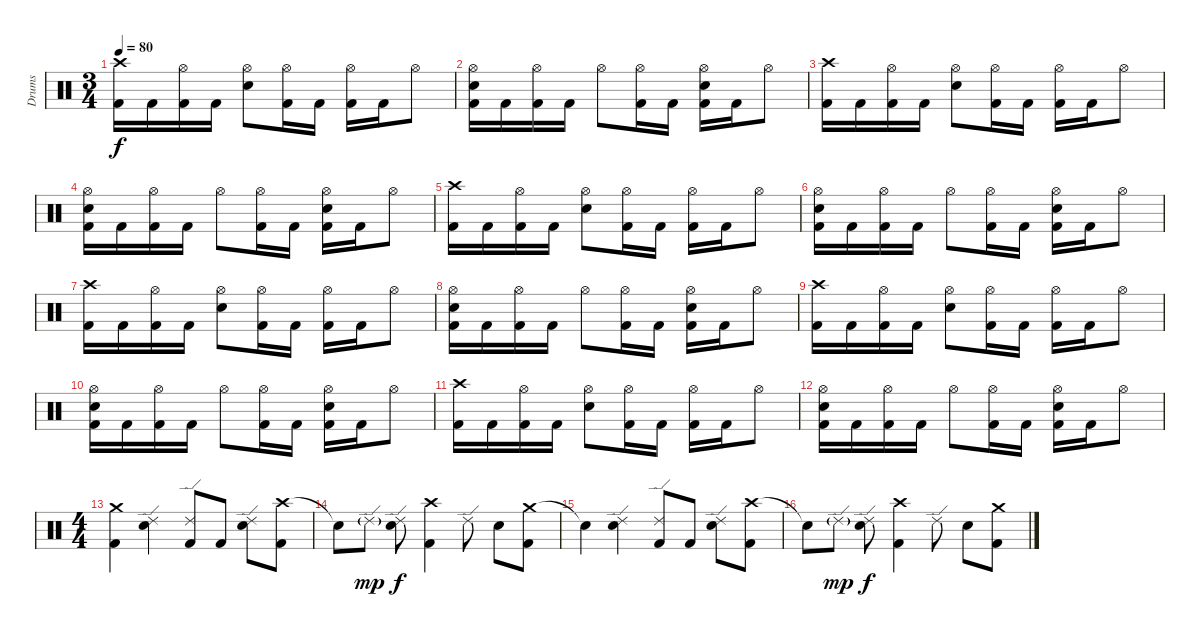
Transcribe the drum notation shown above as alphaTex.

\track ("Drums" "Drums") {instrument percussion}
\staff {score}
\articulation defaults
\ts (3 4)
\tempo 80
\clef neutral
\ks c
("Crash high (hit)" "Kick (hit) 2").16{dy f} "Kick (hit) 2".16 ("Hi-Hat (open)" "Kick (hit) 2").16 "Kick (hit) 2".16 ("Hi-Hat (open)" "Snare (hit) 2").8 ("Hi-Hat (open)" "Kick (hit) 2").16 "Kick (hit) 2".16 ("Hi-Hat (open)" "Kick (hit) 2").16 "Kick (hit) 2".16 "Hi-Hat (open)".8 |
("Hi-Hat (open)" "Snare (hit) 2" "Kick (hit) 2").16 "Kick (hit) 2".16 ("Hi-Hat (open)" "Kick (hit) 2").16 "Kick (hit) 2".16 "Hi-Hat (open)".8 ("Hi-Hat (open)" "Kick (hit) 2").16 "Kick (hit) 2".16 ("Hi-Hat (open)" "Snare (hit) 2" "Kick (hit) 2").16 "Kick (hit) 2".16 "Hi-Hat (open)".8 |
("Crash high (hit)" "Kick (hit) 2").16 "Kick (hit) 2".16 ("Hi-Hat (open)" "Kick (hit) 2").16 "Kick (hit) 2".16 ("Hi-Hat (open)" "Snare (hit) 2").8 ("Hi-Hat (open)" "Kick (hit) 2").16 "Kick (hit) 2".16 ("Hi-Hat (open)" "Kick (hit) 2").16 "Kick (hit) 2".16 "Hi-Hat (open)".8 |
("Hi-Hat (open)" "Snare (hit) 2" "Kick (hit) 2").16 "Kick (hit) 2".16 ("Hi-Hat (open)" "Kick (hit) 2").16 "Kick (hit) 2".16 "Hi-Hat (open)".8 ("Hi-Hat (open)" "Kick (hit) 2").16 "Kick (hit) 2".16 ("Hi-Hat (open)" "Snare (hit) 2" "Kick (hit) 2").16 "Kick (hit) 2".16 "Hi-Hat (open)".8 |
("Crash high (hit)" "Kick (hit) 2").16 "Kick (hit) 2".16 ("Hi-Hat (open)" "Kick (hit) 2").16 "Kick (hit) 2".16 ("Hi-Hat (open)" "Snare (hit) 2").8 ("Hi-Hat (open)" "Kick (hit) 2").16 "Kick (hit) 2".16 ("Hi-Hat (open)" "Kick (hit) 2").16 "Kick (hit) 2".16 "Hi-Hat (open)".8 |
("Hi-Hat (open)" "Snare (hit) 2" "Kick (hit) 2").16 "Kick (hit) 2".16 ("Hi-Hat (open)" "Kick (hit) 2").16 "Kick (hit) 2".16 "Hi-Hat (open)".8 ("Hi-Hat (open)" "Kick (hit) 2").16 "Kick (hit) 2".16 ("Hi-Hat (open)" "Snare (hit) 2" "Kick (hit) 2").16 "Kick (hit) 2".16 "Hi-Hat (open)".8 |
("Crash high (hit)" "Kick (hit) 2").16 "Kick (hit) 2".16 ("Hi-Hat (open)" "Kick (hit) 2").16 "Kick (hit) 2".16 ("Hi-Hat (open)" "Snare (hit) 2").8 ("Hi-Hat (open)" "Kick (hit) 2").16 "Kick (hit) 2".16 ("Hi-Hat (open)" "Kick (hit) 2").16 "Kick (hit) 2".16 "Hi-Hat (open)".8 |
("Hi-Hat (open)" "Snare (hit) 2" "Kick (hit) 2").16 "Kick (hit) 2".16 ("Hi-Hat (open)" "Kick (hit) 2").16 "Kick (hit) 2".16 "Hi-Hat (open)".8 ("Hi-Hat (open)" "Kick (hit) 2").16 "Kick (hit) 2".16 ("Hi-Hat (open)" "Snare (hit) 2" "Kick (hit) 2").16 "Kick (hit) 2".16 "Hi-Hat (open)".8 |
("Crash high (hit)" "Kick (hit) 2").16 "Kick (hit) 2".16 ("Hi-Hat (open)" "Kick (hit) 2").16 "Kick (hit) 2".16 ("Hi-Hat (open)" "Snare (hit) 2").8 ("Hi-Hat (open)" "Kick (hit) 2").16 "Kick (hit) 2".16 ("Hi-Hat (open)" "Kick (hit) 2").16 "Kick (hit) 2".16 "Hi-Hat (open)".8 |
("Hi-Hat (open)" "Snare (hit) 2" "Kick (hit) 2").16 "Kick (hit) 2".16 ("Hi-Hat (open)" "Kick (hit) 2").16 "Kick (hit) 2".16 "Hi-Hat (open)".8 ("Hi-Hat (open)" "Kick (hit) 2").16 "Kick (hit) 2".16 ("Hi-Hat (open)" "Snare (hit) 2" "Kick (hit) 2").16 "Kick (hit) 2".16 "Hi-Hat (open)".8 |
("Crash high (hit)" "Kick (hit) 2").16 "Kick (hit) 2".16 ("Hi-Hat (open)" "Kick (hit) 2").16 "Kick (hit) 2".16 ("Hi-Hat (open)" "Snare (hit) 2").8 ("Hi-Hat (open)" "Kick (hit) 2").16 "Kick (hit) 2".16 ("Hi-Hat (open)" "Kick (hit) 2").16 "Kick (hit) 2".16 "Hi-Hat (open)".8 |
("Hi-Hat (open)" "Snare (hit) 2" "Kick (hit) 2").16 "Kick (hit) 2".16 ("Hi-Hat (open)" "Kick (hit) 2").16 "Kick (hit) 2".16 "Hi-Hat (open)".8 ("Hi-Hat (open)" "Kick (hit) 2").16 "Kick (hit) 2".16 ("Hi-Hat (open)" "Snare (hit) 2" "Kick (hit) 2").16 "Kick (hit) 2".16 "Hi-Hat (open)".8 |
\ts (4 4)
("Crash medium (hit)" "Kick (hit) 2").4 ("Ride (edge) 2" "Snare (hit) 2").4 ("Ride (edge) 2" "Kick (hit) 2").8 "Kick (hit) 2".8 ("Ride (edge) 2" "Snare (hit) 2").8 ("Crash high (hit)" "Kick (hit) 2").8 |
"Snare (hit)"{t}.8 "Ride (edge) 2"{g}.8{dy mp} ("Ride (edge) 2" "Snare (hit) 2").8{dy f} ("Crash high (hit)" "Kick (hit) 2").4 "Ride (edge) 2".8 "Snare (hit) 2".8 ("Crash medium (hit)" "Kick (hit) 2").8 |
"Snare (hit)"{t}.4 ("Ride (edge) 2" "Snare (hit) 2").4 ("Ride (edge) 2" "Kick (hit) 2").8 "Kick (hit) 2".8 ("Ride (edge) 2" "Snare (hit) 2").8 ("Crash high (hit)" "Kick (hit) 2").8 |
"Snare (hit)"{t}.8 "Ride (edge) 2"{g}.8{dy mp} ("Ride (edge) 2" "Snare (hit) 2").8{dy f} ("Crash high (hit)" "Kick (hit) 2").4 "Ride (edge) 2".8 "Snare (hit) 2".8 ("Crash medium (hit)" "Kick (hit) 2").8
